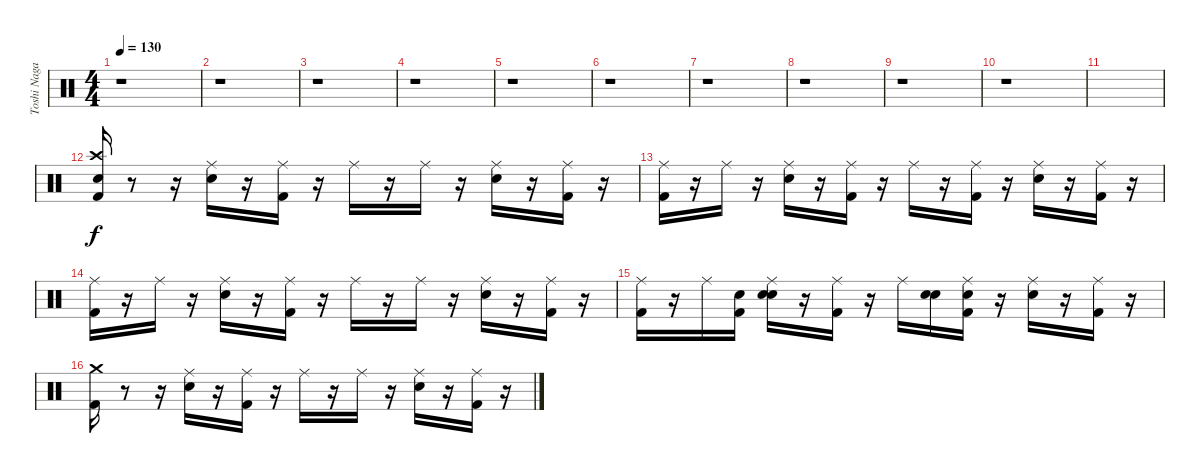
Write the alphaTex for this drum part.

\track ("Toshi Nagai" "Toshi Naga") {instrument percussion}
\staff {score}
\articulation defaults
\ts (4 4)
\tempo 130
\clef neutral
\ks c
r.1{dy f} |
r.1 |
r.1 |
r.1 |
r.1 |
r.1 |
r.1 |
r.1 |
r.1 |
r.1 |
|
("Snare (hit)" "Crash high (hit)" "Kick (hit) 2").16 r.8 r.16 ("Ride (middle)" "Electric Snare (hit)").16 r.16 ("Ride (middle)" "Kick (hit) 2").16 r.16 "Ride (middle)".16 r.16 "Ride (middle)".16 r.16 ("Electric Snare (hit)" "Ride (middle)").16 r.16 ("Kick (hit) 2" "Ride (middle)").16 r.16 |
("Kick (hit) 2" "Ride (middle)").16 r.16 "Ride (middle)".16 r.16 ("Electric Snare (hit)" "Ride (middle)").16 r.16 ("Kick (hit) 2" "Ride (middle)").16 r.16 "Ride (middle)".16 r.16 ("Kick (hit) 2" "Ride (middle)").16 r.16 ("Electric Snare (hit)" "Ride (middle)").16 r.16 ("Kick (hit) 2" "Ride (middle)").16 r.16 |
("Kick (hit) 2" "Ride (middle)").16 r.16 "Ride (middle)".16 r.16 ("Electric Snare (hit)" "Ride (middle)").16 r.16 ("Kick (hit) 2" "Ride (middle)").16 r.16 "Ride (middle)".16 r.16 "Ride (middle)".16 r.16 ("Electric Snare (hit)" "Ride (middle)").16 r.16 ("Kick (hit) 2" "Ride (middle)").16 r.16 |
("Ride (middle)" "Kick (hit) 2").16 r.16 "Ride (middle)".16 ("Snare (hit)" "Kick (hit) 2").16 ("Snare (hit)" "Ride (middle)" "Electric Snare (hit)").16 r.16 ("Kick (hit) 2" "Ride (middle)").16 r.16 "Ride (middle)".16 ("Snare (hit)" "Electric Snare (hit)").16 ("Snare (hit)" "Kick (hit) 2" "Ride (middle)").16 r.16 ("Electric Snare (hit)" "Ride (middle)").16 r.16 ("Kick (hit) 2" "Ride (middle)").16 r.16 |
("Crash medium (hit)" "Kick (hit) 2").16 r.8 r.16 ("Electric Snare (hit)" "Ride (middle)").16 r.16 ("Kick (hit) 2" "Ride (middle)").16 r.16 "Ride (middle)".16 r.16 "Ride (middle)".16 r.16 ("Electric Snare (hit)" "Ride (middle)").16 r.16 ("Kick (hit) 2" "Ride (middle)").16 r.16
